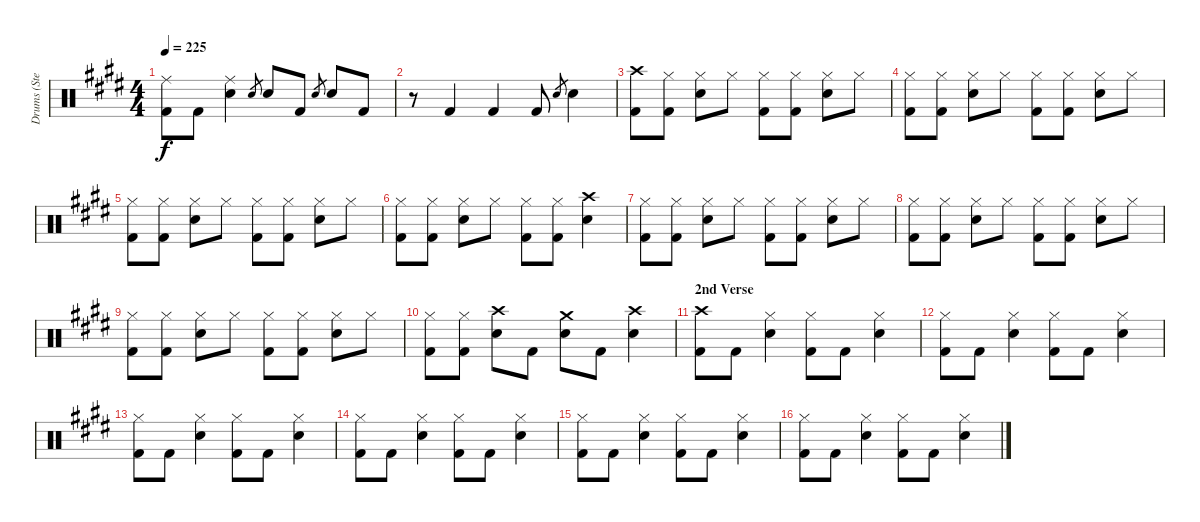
\track ("Drums (Steven)" "Drums (Ste") {instrument percussion}
\staff {score}
\articulation defaults
\ts (4 4)
\tempo 225
\clef neutral
\ks e
("Ride (middle)" "Kick (hit) 2").8{dy f} "Kick (hit) 2".8 ("Ride (middle)" "Snare (hit) 2").4 "Snare (hit) 2".8{gr} "Snare (hit) 2".8 "Kick (hit) 2".8 "Snare (hit) 2".8{gr} "Snare (hit) 2".8 "Kick (hit) 2".8 |
r.8 "Kick (hit) 2".4 "Kick (hit) 2".4 "Kick (hit) 2".8 "Snare (hit) 2".8{gr} "Snare (hit) 2".4 |
("Crash high (hit)" "Kick (hit) 2").8 ("Hi-Hat (closed)" "Kick (hit) 2").8 ("Hi-Hat (closed)" "Snare (hit) 2").8 "Hi-Hat (closed)".8 ("Hi-Hat (closed)" "Kick (hit) 2").8 ("Hi-Hat (closed)" "Kick (hit) 2").8 ("Hi-Hat (closed)" "Snare (hit) 2").8 "Hi-Hat (closed)".8 |
("Hi-Hat (closed)" "Kick (hit) 2").8 ("Hi-Hat (closed)" "Kick (hit) 2").8 ("Hi-Hat (closed)" "Snare (hit) 2").8 "Hi-Hat (closed)".8 ("Hi-Hat (closed)" "Kick (hit) 2").8 ("Hi-Hat (closed)" "Kick (hit) 2").8 ("Hi-Hat (closed)" "Snare (hit) 2").8 "Hi-Hat (closed)".8 |
("Hi-Hat (closed)" "Kick (hit) 2").8 ("Hi-Hat (closed)" "Kick (hit) 2").8 ("Hi-Hat (closed)" "Snare (hit) 2").8 "Hi-Hat (closed)".8 ("Hi-Hat (closed)" "Kick (hit) 2").8 ("Hi-Hat (closed)" "Kick (hit) 2").8 ("Hi-Hat (closed)" "Snare (hit) 2").8 "Hi-Hat (closed)".8 |
("Hi-Hat (closed)" "Kick (hit) 2").8 ("Hi-Hat (closed)" "Kick (hit) 2").8 ("Hi-Hat (closed)" "Snare (hit) 2").8 "Hi-Hat (closed)".8 ("Hi-Hat (closed)" "Kick (hit) 2").8 ("Hi-Hat (closed)" "Kick (hit) 2").8 ("Crash high (hit)" "Snare (hit) 2").4 |
("Hi-Hat (closed)" "Kick (hit) 2").8 ("Hi-Hat (closed)" "Kick (hit) 2").8 ("Hi-Hat (closed)" "Snare (hit) 2").8 "Hi-Hat (closed)".8 ("Hi-Hat (closed)" "Kick (hit) 2").8 ("Hi-Hat (closed)" "Kick (hit) 2").8 ("Hi-Hat (closed)" "Snare (hit) 2").8 "Hi-Hat (closed)".8 |
("Hi-Hat (closed)" "Kick (hit) 2").8 ("Hi-Hat (closed)" "Kick (hit) 2").8 ("Hi-Hat (closed)" "Snare (hit) 2").8 "Hi-Hat (closed)".8 ("Hi-Hat (closed)" "Kick (hit) 2").8 ("Hi-Hat (closed)" "Kick (hit) 2").8 ("Hi-Hat (closed)" "Snare (hit) 2").8 "Hi-Hat (closed)".8 |
("Hi-Hat (closed)" "Kick (hit) 2").8 ("Hi-Hat (closed)" "Kick (hit) 2").8 ("Hi-Hat (closed)" "Snare (hit) 2").8 "Hi-Hat (closed)".8 ("Hi-Hat (closed)" "Kick (hit) 2").8 ("Hi-Hat (closed)" "Kick (hit) 2").8 ("Hi-Hat (closed)" "Snare (hit) 2").8 "Hi-Hat (closed)".8 |
("Hi-Hat (closed)" "Kick (hit) 2").8 ("Hi-Hat (closed)" "Kick (hit) 2").8 ("Crash high (hit)" "Snare (hit) 2").8 "Kick (hit) 2".8 ("Crash medium (hit)" "Snare (hit) 2").8 "Kick (hit) 2".8 ("Crash high (hit)" "Snare (hit) 2").4 |
\section ("" "2nd Verse")
("Crash high (hit)" "Kick (hit) 2").8 "Kick (hit) 2".8 ("Hi-Hat (closed)" "Snare (hit) 2").4 ("Hi-Hat (closed)" "Kick (hit) 2").8 "Kick (hit) 2".8 ("Hi-Hat (closed)" "Snare (hit) 2").4 |
("Hi-Hat (closed)" "Kick (hit) 2").8 "Kick (hit) 2".8 ("Hi-Hat (closed)" "Snare (hit) 2").4 ("Hi-Hat (closed)" "Kick (hit) 2").8 "Kick (hit) 2".8 ("Hi-Hat (closed)" "Snare (hit) 2").4 |
("Hi-Hat (closed)" "Kick (hit) 2").8 "Kick (hit) 2".8 ("Hi-Hat (closed)" "Snare (hit) 2").4 ("Hi-Hat (closed)" "Kick (hit) 2").8 "Kick (hit) 2".8 ("Hi-Hat (closed)" "Snare (hit) 2").4 |
("Hi-Hat (closed)" "Kick (hit) 2").8 "Kick (hit) 2".8 ("Hi-Hat (closed)" "Snare (hit) 2").4 ("Hi-Hat (closed)" "Kick (hit) 2").8 "Kick (hit) 2".8 ("Hi-Hat (closed)" "Snare (hit) 2").4 |
("Hi-Hat (closed)" "Kick (hit) 2").8 "Kick (hit) 2".8 ("Hi-Hat (closed)" "Snare (hit) 2").4 ("Hi-Hat (closed)" "Kick (hit) 2").8 "Kick (hit) 2".8 ("Hi-Hat (closed)" "Snare (hit) 2").4 |
("Hi-Hat (closed)" "Kick (hit) 2").8 "Kick (hit) 2".8 ("Hi-Hat (closed)" "Snare (hit) 2").4 ("Hi-Hat (closed)" "Kick (hit) 2").8 "Kick (hit) 2".8 ("Hi-Hat (closed)" "Snare (hit) 2").4
